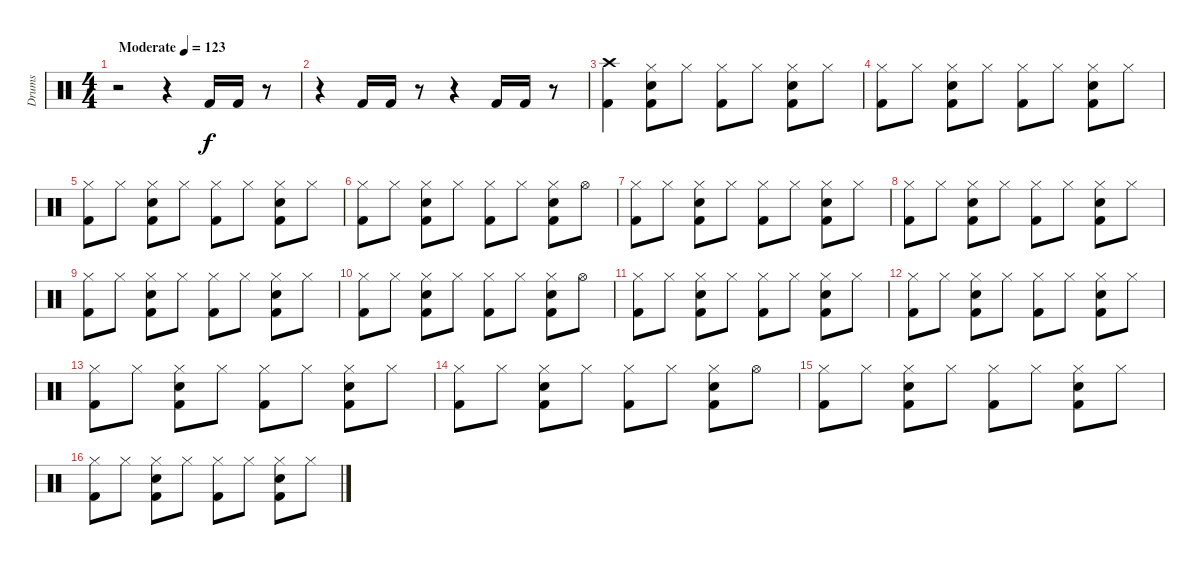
\track ("Drums" "Drums") {instrument percussion}
\staff {score}
\articulation defaults
\ts (4 4)
\tempo (123 "Moderate")
\clef neutral
\ks c
r.2{dy f} r.4 "Kick (hit) 2".16 "Kick (hit) 2".16 r.8 |
r.4 "Kick (hit) 2".16 "Kick (hit) 2".16 r.8 r.4 "Kick (hit) 2".16 "Kick (hit) 2".16 r.8 |
("Crash high (hit)" "Kick (hit) 2").4 ("Hi-Hat (closed)" "Snare (hit) 2" "Kick (hit) 2").8 "Hi-Hat (closed)".8 ("Hi-Hat (closed)" "Kick (hit) 2").8 "Hi-Hat (closed)".8 ("Hi-Hat (closed)" "Snare (hit) 2" "Kick (hit) 2").8 "Hi-Hat (closed)".8 |
("Hi-Hat (closed)" "Kick (hit) 2").8 "Hi-Hat (closed)".8 ("Hi-Hat (closed)" "Snare (hit) 2" "Kick (hit) 2").8 "Hi-Hat (closed)".8 ("Hi-Hat (closed)" "Kick (hit) 2").8 "Hi-Hat (closed)".8 ("Hi-Hat (closed)" "Snare (hit) 2" "Kick (hit) 2").8 "Hi-Hat (closed)".8 |
("Hi-Hat (closed)" "Kick (hit) 2").8 "Hi-Hat (closed)".8 ("Hi-Hat (closed)" "Snare (hit) 2" "Kick (hit) 2").8 "Hi-Hat (closed)".8 ("Hi-Hat (closed)" "Kick (hit) 2").8 "Hi-Hat (closed)".8 ("Hi-Hat (closed)" "Snare (hit) 2" "Kick (hit) 2").8 "Hi-Hat (closed)".8 |
("Hi-Hat (closed)" "Kick (hit) 2").8 "Hi-Hat (closed)".8 ("Hi-Hat (closed)" "Snare (hit) 2" "Kick (hit) 2").8 "Hi-Hat (closed)".8 ("Hi-Hat (closed)" "Kick (hit) 2").8 "Hi-Hat (closed)".8 ("Hi-Hat (closed)" "Snare (hit) 2" "Kick (hit) 2").8 "Hi-Hat (open)".8 |
("Hi-Hat (closed)" "Kick (hit) 2").8 "Hi-Hat (closed)".8 ("Hi-Hat (closed)" "Snare (hit) 2" "Kick (hit) 2").8 "Hi-Hat (closed)".8 ("Hi-Hat (closed)" "Kick (hit) 2").8 "Hi-Hat (closed)".8 ("Hi-Hat (closed)" "Snare (hit) 2" "Kick (hit) 2").8 "Hi-Hat (closed)".8 |
("Hi-Hat (closed)" "Kick (hit) 2").8 "Hi-Hat (closed)".8 ("Hi-Hat (closed)" "Snare (hit) 2" "Kick (hit) 2").8 "Hi-Hat (closed)".8 ("Hi-Hat (closed)" "Kick (hit) 2").8 "Hi-Hat (closed)".8 ("Hi-Hat (closed)" "Snare (hit) 2" "Kick (hit) 2").8 "Hi-Hat (closed)".8 |
("Hi-Hat (closed)" "Kick (hit) 2").8 "Hi-Hat (closed)".8 ("Hi-Hat (closed)" "Snare (hit) 2" "Kick (hit) 2").8 "Hi-Hat (closed)".8 ("Hi-Hat (closed)" "Kick (hit) 2").8 "Hi-Hat (closed)".8 ("Hi-Hat (closed)" "Snare (hit) 2" "Kick (hit) 2").8 "Hi-Hat (closed)".8 |
("Hi-Hat (closed)" "Kick (hit) 2").8 "Hi-Hat (closed)".8 ("Hi-Hat (closed)" "Snare (hit) 2" "Kick (hit) 2").8 "Hi-Hat (closed)".8 ("Hi-Hat (closed)" "Kick (hit) 2").8 "Hi-Hat (closed)".8 ("Hi-Hat (closed)" "Snare (hit) 2" "Kick (hit) 2").8 "Hi-Hat (open)".8 |
("Hi-Hat (closed)" "Kick (hit) 2").8 "Hi-Hat (closed)".8 ("Hi-Hat (closed)" "Snare (hit) 2" "Kick (hit) 2").8 "Hi-Hat (closed)".8 ("Hi-Hat (closed)" "Kick (hit) 2").8 "Hi-Hat (closed)".8 ("Hi-Hat (closed)" "Snare (hit) 2" "Kick (hit) 2").8 "Hi-Hat (closed)".8 |
("Hi-Hat (closed)" "Kick (hit) 2").8 "Hi-Hat (closed)".8 ("Hi-Hat (closed)" "Snare (hit) 2" "Kick (hit) 2").8 "Hi-Hat (closed)".8 ("Hi-Hat (closed)" "Kick (hit) 2").8 "Hi-Hat (closed)".8 ("Hi-Hat (closed)" "Snare (hit) 2" "Kick (hit) 2").8 "Hi-Hat (closed)".8 |
("Hi-Hat (closed)" "Kick (hit) 2").8 "Hi-Hat (closed)".8 ("Hi-Hat (closed)" "Snare (hit) 2" "Kick (hit) 2").8 "Hi-Hat (closed)".8 ("Hi-Hat (closed)" "Kick (hit) 2").8 "Hi-Hat (closed)".8 ("Hi-Hat (closed)" "Snare (hit) 2" "Kick (hit) 2").8 "Hi-Hat (closed)".8 |
("Hi-Hat (closed)" "Kick (hit) 2").8 "Hi-Hat (closed)".8 ("Hi-Hat (closed)" "Snare (hit) 2" "Kick (hit) 2").8 "Hi-Hat (closed)".8 ("Hi-Hat (closed)" "Kick (hit) 2").8 "Hi-Hat (closed)".8 ("Hi-Hat (closed)" "Snare (hit) 2" "Kick (hit) 2").8 "Hi-Hat (open)".8 |
("Hi-Hat (closed)" "Kick (hit) 2").8 "Hi-Hat (closed)".8 ("Hi-Hat (closed)" "Snare (hit) 2" "Kick (hit) 2").8 "Hi-Hat (closed)".8 ("Hi-Hat (closed)" "Kick (hit) 2").8 "Hi-Hat (closed)".8 ("Hi-Hat (closed)" "Snare (hit) 2" "Kick (hit) 2").8 "Hi-Hat (closed)".8 |
("Hi-Hat (closed)" "Kick (hit) 2").8 "Hi-Hat (closed)".8 ("Hi-Hat (closed)" "Snare (hit) 2" "Kick (hit) 2").8 "Hi-Hat (closed)".8 ("Hi-Hat (closed)" "Kick (hit) 2").8 "Hi-Hat (closed)".8 ("Hi-Hat (closed)" "Snare (hit) 2" "Kick (hit) 2").8 "Hi-Hat (closed)".8
